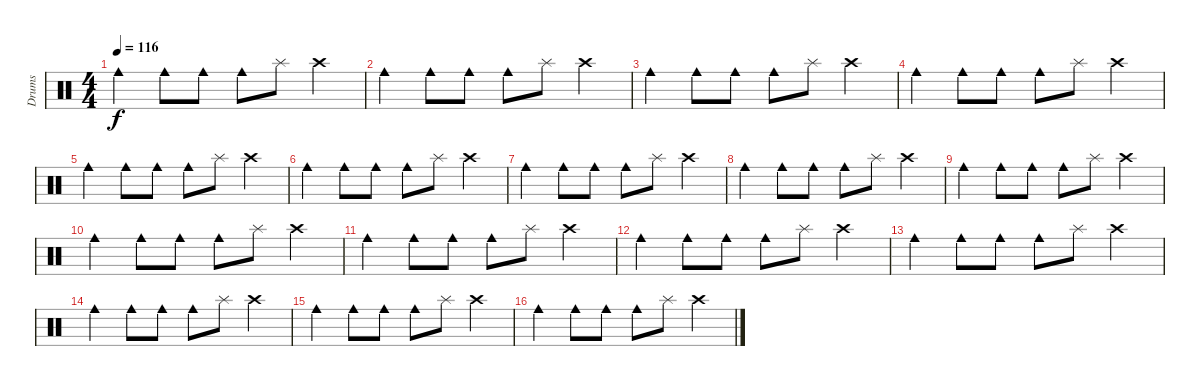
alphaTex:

\track ("Drums" "Drums") {instrument percussion}
\staff {score}
\articulation defaults
\ts (4 4)
\tempo 116
\clef neutral
\ks c "Cowbell medium (hit)".4{dy f} "Cowbell medium (hit)".8 "Cowbell medium (hit)".8 "Cowbell medium (hit)".8 "Splash (hit)".8 "Crash high (hit)".4
|
"Cowbell medium (hit)".4 "Cowbell medium (hit)".8 "Cowbell medium (hit)".8 "Cowbell medium (hit)".8 "Splash (hit)".8 "Crash high (hit)".4 |
"Cowbell medium (hit)".4 "Cowbell medium (hit)".8 "Cowbell medium (hit)".8 "Cowbell medium (hit)".8 "Splash (hit)".8 "Crash high (hit)".4 |
"Cowbell medium (hit)".4 "Cowbell medium (hit)".8 "Cowbell medium (hit)".8 "Cowbell medium (hit)".8 "Splash (hit)".8 "Crash high (hit)".4 |
"Cowbell medium (hit)".4 "Cowbell medium (hit)".8 "Cowbell medium (hit)".8 "Cowbell medium (hit)".8 "Splash (hit)".8 "Crash high (hit)".4 |
"Cowbell medium (hit)".4 "Cowbell medium (hit)".8 "Cowbell medium (hit)".8 "Cowbell medium (hit)".8 "Splash (hit)".8 "Crash high (hit)".4 |
"Cowbell medium (hit)".4 "Cowbell medium (hit)".8 "Cowbell medium (hit)".8 "Cowbell medium (hit)".8 "Splash (hit)".8 "Crash high (hit)".4 |
"Cowbell medium (hit)".4 "Cowbell medium (hit)".8 "Cowbell medium (hit)".8 "Cowbell medium (hit)".8 "Splash (hit)".8 "Crash high (hit)".4 |
"Cowbell medium (hit)".4 "Cowbell medium (hit)".8 "Cowbell medium (hit)".8 "Cowbell medium (hit)".8 "Splash (hit)".8 "Crash high (hit)".4 |
"Cowbell medium (hit)".4 "Cowbell medium (hit)".8 "Cowbell medium (hit)".8 "Cowbell medium (hit)".8 "Splash (hit)".8 "Crash high (hit)".4 |
"Cowbell medium (hit)".4 "Cowbell medium (hit)".8 "Cowbell medium (hit)".8 "Cowbell medium (hit)".8 "Splash (hit)".8 "Crash high (hit)".4 |
"Cowbell medium (hit)".4 "Cowbell medium (hit)".8 "Cowbell medium (hit)".8 "Cowbell medium (hit)".8 "Splash (hit)".8 "Crash high (hit)".4 |
"Cowbell medium (hit)".4 "Cowbell medium (hit)".8 "Cowbell medium (hit)".8 "Cowbell medium (hit)".8 "Splash (hit)".8 "Crash high (hit)".4 |
"Cowbell medium (hit)".4 "Cowbell medium (hit)".8 "Cowbell medium (hit)".8 "Cowbell medium (hit)".8 "Splash (hit)".8 "Crash high (hit)".4 |
"Cowbell medium (hit)".4 "Cowbell medium (hit)".8 "Cowbell medium (hit)".8 "Cowbell medium (hit)".8 "Splash (hit)".8 "Crash high (hit)".4 |
"Cowbell medium (hit)".4 "Cowbell medium (hit)".8 "Cowbell medium (hit)".8 "Cowbell medium (hit)".8 "Splash (hit)".8 "Crash high (hit)".4
